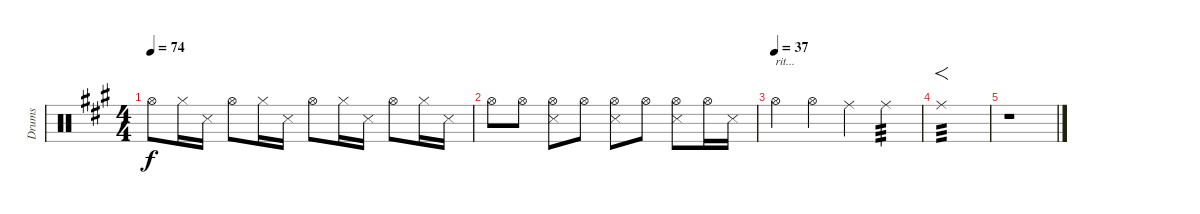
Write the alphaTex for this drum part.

\track ("Drums" "Drums") {instrument percussion}
\staff {score}
\articulation defaults
\ts (4 4)
\tempo 74
\clef neutral
\ks f#minor "Hi-Hat (open)".8{dy f} "Hi-Hat (closed)".16 "Snare (side stick) 3".16 "Hi-Hat (open)".8 "Hi-Hat (closed)".16 "Snare (side stick) 3".16 "Hi-Hat (open)".8 "Hi-Hat (closed)".16 "Snare (side stick) 3".16 "Hi-Hat (open)".8 "Hi-Hat (closed)".16 "Snare (side stick) 3".16
|
"Hi-Hat (open)".8 "Hi-Hat (open)".8 ("Hi-Hat (open)" "Snare (side stick) 3").8 "Hi-Hat (open)".8 ("Hi-Hat (open)" "Snare (side stick) 3").8 "Hi-Hat (open)".8 ("Hi-Hat (open)" "Snare (side stick) 3").8 "Hi-Hat (open)".16 "Snare (side stick) 3".16 |
\tempo 37
\ks a "Hi-Hat (open)".4{txt "rit..."} "Hi-Hat (open)".4 "Ride (middle)".4 "Ride (middle)".4{tp 3}
|
"Ride (middle)".1{f tp 3} |
r.1
